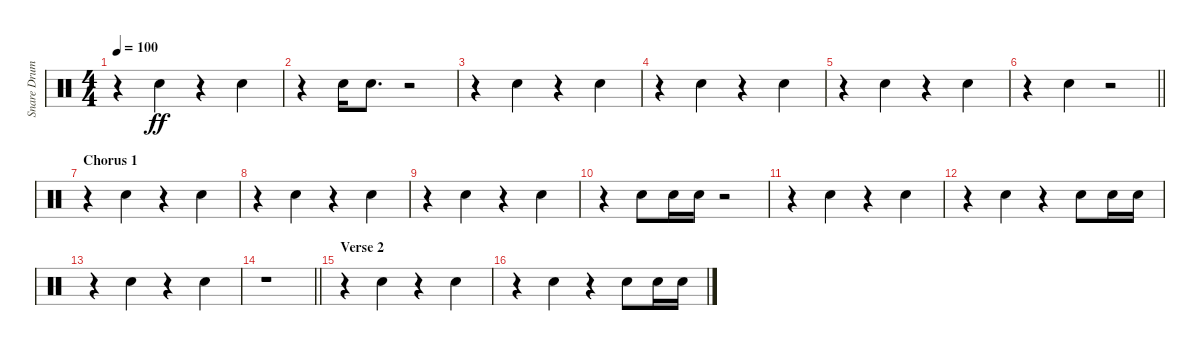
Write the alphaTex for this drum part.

\track ("Snare Drum - reverb" "Snare Drum") {instrument percussion}
\staff {score}
\articulation defaults
\ts (4 4)
\tempo 100
\clef neutral
\ks c
r.4{dy ff} "Snare (hit) 2".4 r.4 "Snare (hit) 2".4 |
r.4 "Snare (hit) 2".16 "Snare (hit) 2".8{d} r.2 |
r.4 "Snare (hit) 2".4 r.4 "Snare (hit) 2".4 |
r.4 "Snare (hit) 2".4 r.4 "Snare (hit) 2".4 |
r.4 "Snare (hit) 2".4 r.4 "Snare (hit) 2".4 |
\barLineRight lightlight
r.4 "Snare (hit) 2".4 r.2 |
\section ("" "Chorus 1")
r.4 "Snare (hit) 2".4 r.4 "Snare (hit) 2".4 |
r.4 "Snare (hit) 2".4 r.4 "Snare (hit) 2".4 |
r.4 "Snare (hit) 2".4 r.4 "Snare (hit) 2".4 |
r.4 "Snare (hit) 2".8 "Snare (hit) 2".16 "Snare (hit) 2".16 r.2 |
r.4 "Snare (hit) 2".4 r.4 "Snare (hit) 2".4 |
r.4 "Snare (hit) 2".4 r.4 "Snare (hit) 2".8 "Snare (hit) 2".16 "Snare (hit) 2".16 |
r.4 "Snare (hit) 2".4 r.4 "Snare (hit) 2".4 |
\barLineRight lightlight
r.1 |
\section ("" "Verse 2")
r.4 "Snare (hit) 2".4 r.4 "Snare (hit) 2".4 |
r.4 "Snare (hit) 2".4 r.4 "Snare (hit) 2".8 "Snare (hit) 2".16 "Snare (hit) 2".16
